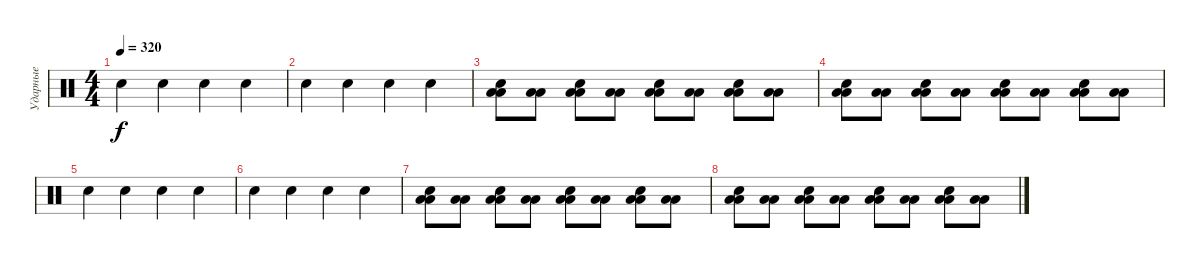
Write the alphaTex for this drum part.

\track ("Ударные" "Ударные") {instrument percussion}
\staff {score}
\articulation defaults
\ts (4 4)
\tempo 320
\clef neutral
\ks c "Electric Snare (hit)".4{dy f} "Electric Snare (hit)".4 "Electric Snare (hit)".4 "Electric Snare (hit)".4
|
"Electric Snare (hit)".4 "Electric Snare (hit)".4 "Electric Snare (hit)".4 "Electric Snare (hit)".4 |
("Low Floor Tom (hit)" "Low Floor Tom (hit)" "Electric Snare (hit)").8 ("Low Floor Tom (hit)" "Low Floor Tom (hit)").8 ("Low Floor Tom (hit)" "Low Floor Tom (hit)" "Electric Snare (hit)").8 ("Low Floor Tom (hit)" "Low Floor Tom (hit)").8 ("Low Floor Tom (hit)" "Low Floor Tom (hit)" "Electric Snare (hit)").8 ("Low Floor Tom (hit)" "Low Floor Tom (hit)").8 ("Low Floor Tom (hit)" "Low Floor Tom (hit)" "Electric Snare (hit)").8 ("Low Floor Tom (hit)" "Low Floor Tom (hit)").8 |
("Low Floor Tom (hit)" "Low Floor Tom (hit)" "Electric Snare (hit)").8 ("Low Floor Tom (hit)" "Low Floor Tom (hit)").8 ("Low Floor Tom (hit)" "Low Floor Tom (hit)" "Electric Snare (hit)").8 ("Low Floor Tom (hit)" "Low Floor Tom (hit)").8 ("Low Floor Tom (hit)" "Low Floor Tom (hit)" "Electric Snare (hit)").8 ("Low Floor Tom (hit)" "Low Floor Tom (hit)").8 ("Low Floor Tom (hit)" "Low Floor Tom (hit)" "Electric Snare (hit)").8 ("Low Floor Tom (hit)" "Low Floor Tom (hit)").8 |
"Electric Snare (hit)".4 "Electric Snare (hit)".4 "Electric Snare (hit)".4 "Electric Snare (hit)".4 |
"Electric Snare (hit)".4 "Electric Snare (hit)".4 "Electric Snare (hit)".4 "Electric Snare (hit)".4 |
("Low Floor Tom (hit)" "Low Floor Tom (hit)" "Electric Snare (hit)").8 ("Low Floor Tom (hit)" "Low Floor Tom (hit)").8 ("Low Floor Tom (hit)" "Low Floor Tom (hit)" "Electric Snare (hit)").8 ("Low Floor Tom (hit)" "Low Floor Tom (hit)").8 ("Low Floor Tom (hit)" "Low Floor Tom (hit)" "Electric Snare (hit)").8 ("Low Floor Tom (hit)" "Low Floor Tom (hit)").8 ("Low Floor Tom (hit)" "Low Floor Tom (hit)" "Electric Snare (hit)").8 ("Low Floor Tom (hit)" "Low Floor Tom (hit)").8 |
("Low Floor Tom (hit)" "Low Floor Tom (hit)" "Electric Snare (hit)").8 ("Low Floor Tom (hit)" "Low Floor Tom (hit)").8 ("Low Floor Tom (hit)" "Low Floor Tom (hit)" "Electric Snare (hit)").8 ("Low Floor Tom (hit)" "Low Floor Tom (hit)").8 ("Low Floor Tom (hit)" "Low Floor Tom (hit)" "Electric Snare (hit)").8 ("Low Floor Tom (hit)" "Low Floor Tom (hit)").8 ("Low Floor Tom (hit)" "Low Floor Tom (hit)" "Electric Snare (hit)").8 ("Low Floor Tom (hit)" "Low Floor Tom (hit)").8
